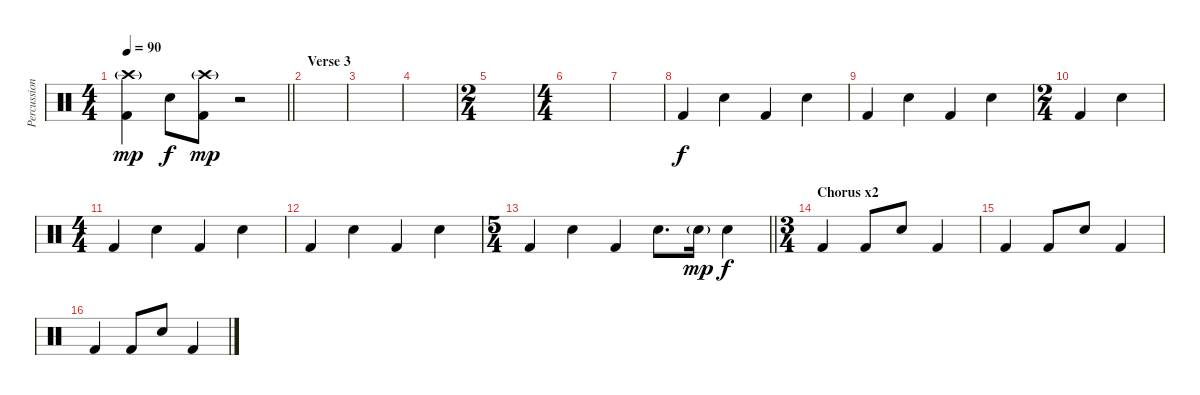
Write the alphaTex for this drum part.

\track ("Percussion" "Percussion") {instrument percussion}
\staff {score}
\articulation defaults
\ts (4 4)
\tempo 90
\clef neutral
\barLineRight lightlight
\ks c
("Crash high (hit)"{g} "Kick (hit) 2").4{dy mp} "Snare (hit) 2".8{dy f} ("Crash high (hit)"{g} "Kick (hit) 2").8{dy mp} r.2 |
\section ("" "Verse 3")
|
|
|
\ts (2 4)
|
\ts (4 4)
|
|
"Kick (hit) 2".4{dy f} "Snare (hit) 2".4 "Kick (hit) 2".4 "Snare (hit) 2".4 |
"Kick (hit) 2".4 "Snare (hit) 2".4 "Kick (hit) 2".4 "Snare (hit) 2".4 |
\ts (2 4)
"Kick (hit) 2".4 "Snare (hit) 2".4 |
\ts (4 4)
"Kick (hit) 2".4 "Snare (hit) 2".4 "Kick (hit) 2".4 "Snare (hit) 2".4 |
"Kick (hit) 2".4 "Snare (hit) 2".4 "Kick (hit) 2".4 "Snare (hit) 2".4 |
\ts (5 4)
\barLineRight lightlight "Kick (hit) 2".4 "Snare (hit) 2".4 "Kick (hit) 2".4 "Snare (hit) 2".8{d} "Snare (hit) 2"{g}.16{dy mp} "Snare (hit) 2".4{dy f}
|
\ts (3 4)
\section ("" "Chorus x2")
"Kick (hit) 2".4 "Kick (hit) 2".8 "Snare (hit) 2".8 "Kick (hit) 2".4 |
"Kick (hit) 2".4 "Kick (hit) 2".8 "Snare (hit) 2".8 "Kick (hit) 2".4 |
"Kick (hit) 2".4 "Kick (hit) 2".8 "Snare (hit) 2".8 "Kick (hit) 2".4
